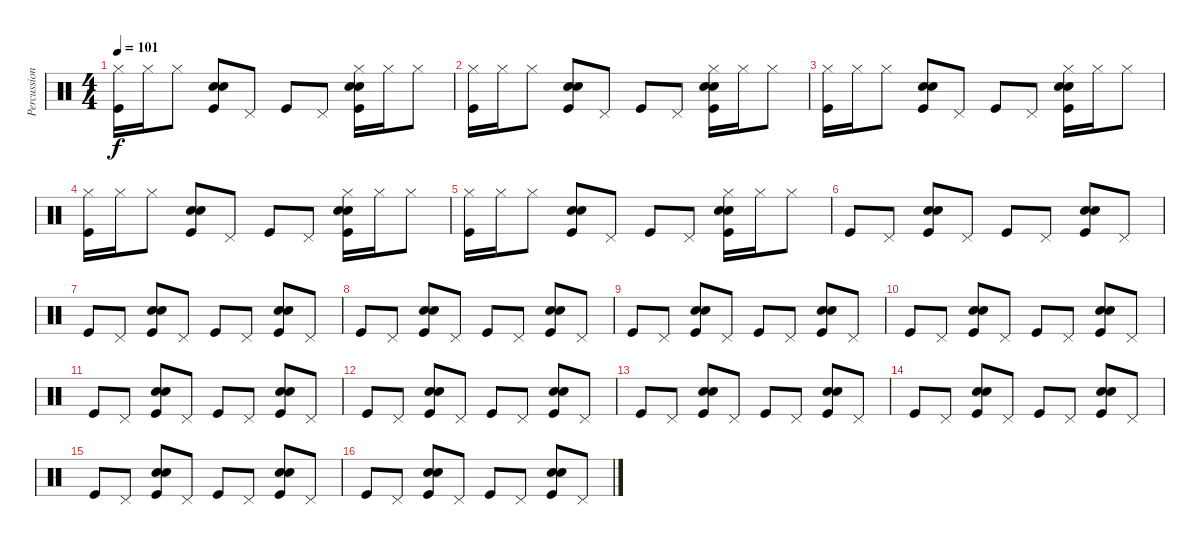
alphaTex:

\track ("Percussion" "Percussion") {instrument percussion}
\staff {score}
\articulation defaults
\ts (4 4)
\tempo 101
\clef neutral
\ks c
("Kick (hit)" "Hi-Hat (closed)").16{dy f} "Hi-Hat (closed)".16 "Hi-Hat (closed)".8 ("Kick (hit)" "Snare (hit) 2" "Electric Snare (hit)").8 "Pedal Hi-Hat (hit)".8 "Kick (hit)".8 "Pedal Hi-Hat (hit)".8 ("Kick (hit)" "Snare (hit) 2" "Electric Snare (hit)" "Hi-Hat (closed)").16 "Hi-Hat (closed)".16 "Hi-Hat (closed)".8 |
("Kick (hit)" "Hi-Hat (closed)").16 "Hi-Hat (closed)".16 "Hi-Hat (closed)".8 ("Kick (hit)" "Snare (hit) 2" "Electric Snare (hit)").8 "Pedal Hi-Hat (hit)".8 "Kick (hit)".8 "Pedal Hi-Hat (hit)".8 ("Kick (hit)" "Snare (hit) 2" "Electric Snare (hit)" "Hi-Hat (closed)").16 "Hi-Hat (closed)".16 "Hi-Hat (closed)".8 |
("Kick (hit)" "Hi-Hat (closed)").16 "Hi-Hat (closed)".16 "Hi-Hat (closed)".8 ("Kick (hit)" "Snare (hit) 2" "Electric Snare (hit)").8 "Pedal Hi-Hat (hit)".8 "Kick (hit)".8 "Pedal Hi-Hat (hit)".8 ("Kick (hit)" "Snare (hit) 2" "Electric Snare (hit)" "Hi-Hat (closed)").16 "Hi-Hat (closed)".16 "Hi-Hat (closed)".8 |
("Kick (hit)" "Hi-Hat (closed)").16 "Hi-Hat (closed)".16 "Hi-Hat (closed)".8 ("Kick (hit)" "Snare (hit) 2" "Electric Snare (hit)").8 "Pedal Hi-Hat (hit)".8 "Kick (hit)".8 "Pedal Hi-Hat (hit)".8 ("Kick (hit)" "Snare (hit) 2" "Electric Snare (hit)" "Hi-Hat (closed)").16 "Hi-Hat (closed)".16 "Hi-Hat (closed)".8 |
("Kick (hit)" "Hi-Hat (closed)").16 "Hi-Hat (closed)".16 "Hi-Hat (closed)".8 ("Kick (hit)" "Snare (hit) 2" "Electric Snare (hit)").8 "Pedal Hi-Hat (hit)".8 "Kick (hit)".8 "Pedal Hi-Hat (hit)".8 ("Kick (hit)" "Snare (hit) 2" "Electric Snare (hit)" "Hi-Hat (closed)").16 "Hi-Hat (closed)".16 "Hi-Hat (closed)".8 |
"Kick (hit)".8 "Pedal Hi-Hat (hit)".8 ("Kick (hit)" "Snare (hit) 2" "Electric Snare (hit)").8 "Pedal Hi-Hat (hit)".8 "Kick (hit)".8 "Pedal Hi-Hat (hit)".8 ("Kick (hit)" "Snare (hit) 2" "Electric Snare (hit)").8 "Pedal Hi-Hat (hit)".8 |
"Kick (hit)".8 "Pedal Hi-Hat (hit)".8 ("Kick (hit)" "Snare (hit) 2" "Electric Snare (hit)").8 "Pedal Hi-Hat (hit)".8 "Kick (hit)".8 "Pedal Hi-Hat (hit)".8 ("Kick (hit)" "Snare (hit) 2" "Electric Snare (hit)").8 "Pedal Hi-Hat (hit)".8 |
"Kick (hit)".8 "Pedal Hi-Hat (hit)".8 ("Kick (hit)" "Snare (hit) 2" "Electric Snare (hit)").8 "Pedal Hi-Hat (hit)".8 "Kick (hit)".8 "Pedal Hi-Hat (hit)".8 ("Kick (hit)" "Snare (hit) 2" "Electric Snare (hit)").8 "Pedal Hi-Hat (hit)".8 |
"Kick (hit)".8 "Pedal Hi-Hat (hit)".8 ("Kick (hit)" "Snare (hit) 2" "Electric Snare (hit)").8 "Pedal Hi-Hat (hit)".8 "Kick (hit)".8 "Pedal Hi-Hat (hit)".8 ("Kick (hit)" "Snare (hit) 2" "Electric Snare (hit)").8 "Pedal Hi-Hat (hit)".8 |
"Kick (hit)".8 "Pedal Hi-Hat (hit)".8 ("Kick (hit)" "Snare (hit) 2" "Electric Snare (hit)").8 "Pedal Hi-Hat (hit)".8 "Kick (hit)".8 "Pedal Hi-Hat (hit)".8 ("Kick (hit)" "Snare (hit) 2" "Electric Snare (hit)").8 "Pedal Hi-Hat (hit)".8 |
"Kick (hit)".8 "Pedal Hi-Hat (hit)".8 ("Kick (hit)" "Snare (hit) 2" "Electric Snare (hit)").8 "Pedal Hi-Hat (hit)".8 "Kick (hit)".8 "Pedal Hi-Hat (hit)".8 ("Kick (hit)" "Snare (hit) 2" "Electric Snare (hit)").8 "Pedal Hi-Hat (hit)".8 |
"Kick (hit)".8 "Pedal Hi-Hat (hit)".8 ("Kick (hit)" "Snare (hit) 2" "Electric Snare (hit)").8 "Pedal Hi-Hat (hit)".8 "Kick (hit)".8 "Pedal Hi-Hat (hit)".8 ("Kick (hit)" "Snare (hit) 2" "Electric Snare (hit)").8 "Pedal Hi-Hat (hit)".8 |
"Kick (hit)".8 "Pedal Hi-Hat (hit)".8 ("Kick (hit)" "Snare (hit) 2" "Electric Snare (hit)").8 "Pedal Hi-Hat (hit)".8 "Kick (hit)".8 "Pedal Hi-Hat (hit)".8 ("Kick (hit)" "Snare (hit) 2" "Electric Snare (hit)").8 "Pedal Hi-Hat (hit)".8 |
"Kick (hit)".8 "Pedal Hi-Hat (hit)".8 ("Kick (hit)" "Snare (hit) 2" "Electric Snare (hit)").8 "Pedal Hi-Hat (hit)".8 "Kick (hit)".8 "Pedal Hi-Hat (hit)".8 ("Kick (hit)" "Snare (hit) 2" "Electric Snare (hit)").8 "Pedal Hi-Hat (hit)".8 |
"Kick (hit)".8 "Pedal Hi-Hat (hit)".8 ("Kick (hit)" "Snare (hit) 2" "Electric Snare (hit)").8 "Pedal Hi-Hat (hit)".8 "Kick (hit)".8 "Pedal Hi-Hat (hit)".8 ("Kick (hit)" "Snare (hit) 2" "Electric Snare (hit)").8 "Pedal Hi-Hat (hit)".8 |
"Kick (hit)".8 "Pedal Hi-Hat (hit)".8 ("Kick (hit)" "Snare (hit) 2" "Electric Snare (hit)").8 "Pedal Hi-Hat (hit)".8 "Kick (hit)".8 "Pedal Hi-Hat (hit)".8 ("Kick (hit)" "Snare (hit) 2" "Electric Snare (hit)").8 "Pedal Hi-Hat (hit)".8
